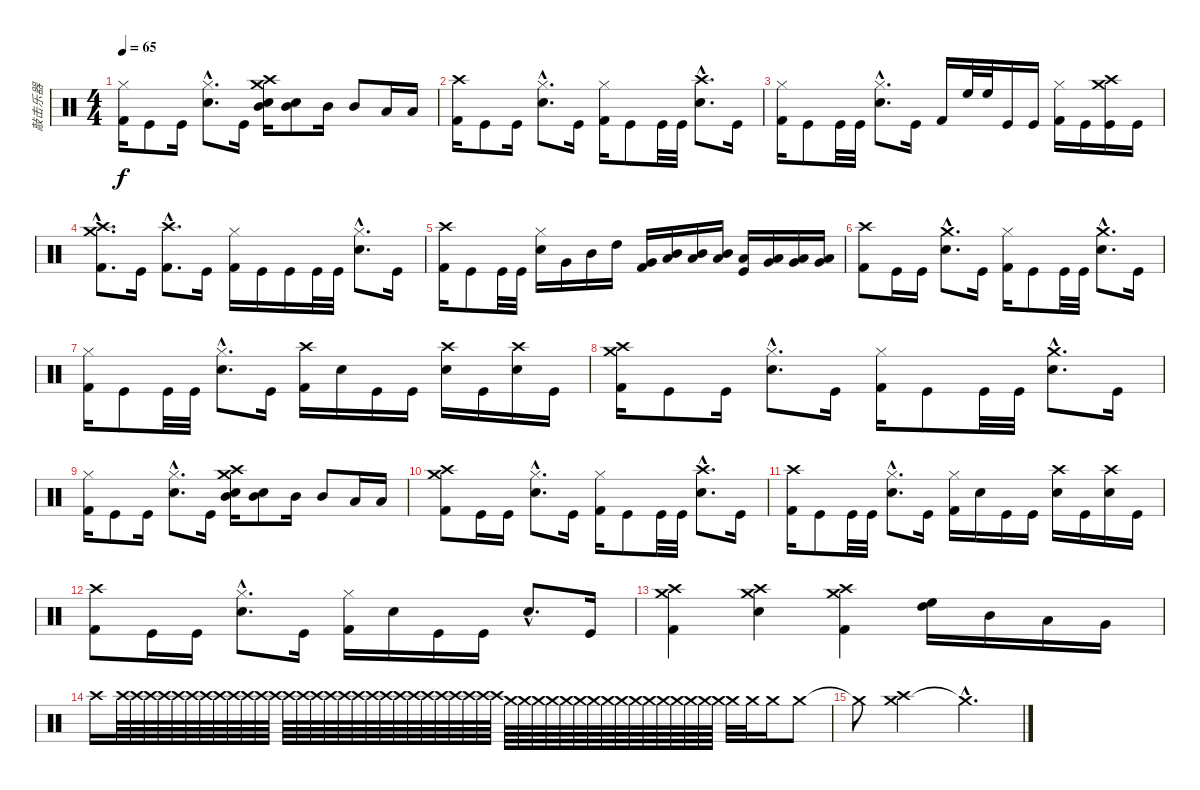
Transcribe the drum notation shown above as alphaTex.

\track ("敲击乐器" "敲击乐器") {instrument percussion}
\staff {score}
\articulation defaults
\ts (4 4)
\tempo 65
\clef neutral
\ks c
("Hi-Hat (closed)" "Kick (hit) 2").16{dy f} "Kick (hit)".8 "Kick (hit)".16 ("Hi-Hat (closed)"{hac} "Electric Snare (hit)"{hac}).8{d} "Kick (hit)".16 ("Crash high (hit)" "Electric Snare (hit)" "Mid Tom (hit)" "Crash medium (hit)").16 ("Electric Snare (hit)" "Mid Tom (hit)").8 "Mid Tom (hit)".16 "Mid Tom (hit)".8 "Low Tom (hit)".16 "Low Tom (hit)".16 |
("Crash high (hit)" "Kick (hit) 2").16 "Kick (hit)".8 "Kick (hit)".16 ("Hi-Hat (closed)"{hac} "Electric Snare (hit)"{hac}).8{d} "Kick (hit)".16 ("Hi-Hat (closed)" "Kick (hit) 2").16 "Kick (hit)".8 "Kick (hit)".32 "Kick (hit)".32 ("Crash high (hit)"{hac} "Electric Snare (hit)"{hac}).8{d} "Kick (hit)".16 |
("Hi-Hat (closed)" "Kick (hit) 2").16 "Kick (hit)".8 "Kick (hit)".32 "Kick (hit)".32 ("Hi-Hat (closed)"{hac} "Electric Snare (hit)"{hac}).8{d} "Kick (hit)".16 "Kick (hit) 2".16 "High Floor Tom (hit)".32 "High Floor Tom (hit)".32 "Kick (hit)".16 "Kick (hit)".16 ("Hi-Hat (closed)" "Kick (hit) 2").16 "Kick (hit)".16 ("Crash high (hit)" "Crash medium (hit)" "Kick (hit)").16 "Kick (hit)".16 |
("Crash high (hit)"{hac} "Crash medium (hit)"{hac} "Kick (hit) 2"{hac}).8{d} "Kick (hit)".16 ("Crash high (hit)"{hac} "Kick (hit) 2"{hac}).8{d} "Kick (hit)".16 ("Hi-Hat (closed)" "Kick (hit) 2").16 "Kick (hit)".16 "Kick (hit)".16 "Kick (hit)".32 "Kick (hit)".32 ("Hi-Hat (closed)"{hac} "Electric Snare (hit)"{hac}).8{d} "Kick (hit)".16 |
("Crash high (hit)" "Kick (hit) 2").16 "Kick (hit)".8 "Kick (hit)".32 "Kick (hit)".32 ("Hi-Hat (closed)" "Electric Snare (hit)").16 "Very Low Tom (hit)".16 "Mid Tom (hit)".16 "High Tom (hit)".16 ("Very Low Tom (hit)" "Kick (hit) 2").16{volume 11} ("Mid Tom (hit)" "Low Tom (hit)").16{volume 9} ("Mid Tom (hit)" "Low Tom (hit)").16{volume 10} ("Mid Tom (hit)" "Low Tom (hit)").16{volume 11} ("Low Tom (hit)" "Kick (hit)").16{volume 13} ("Low Tom (hit)" "Very Low Tom (hit)").16{volume 14} ("Low Tom (hit)" "Very Low Tom (hit)").16{volume 15} ("Low Tom (hit)" "Very Low Tom (hit)").16{volume 16} |
("Crash high (hit)" "Kick (hit) 2").8{volume 13} "Kick (hit)".16 "Kick (hit)".16 ("Crash medium (hit)"{hac} "Electric Snare (hit)"{hac}).8{d} "Kick (hit)".16 ("Hi-Hat (closed)" "Kick (hit) 2").16 "Kick (hit)".8 "Kick (hit)".32 "Kick (hit)".32 ("Crash medium (hit)"{hac} "Electric Snare (hit)"{hac}).8{d} "Kick (hit)".16 |
("Hi-Hat (closed)" "Kick (hit) 2").16 "Kick (hit)".8 "Kick (hit)".32 "Kick (hit)".32 ("Hi-Hat (closed)"{hac} "Electric Snare (hit)"{hac}).8{d} "Kick (hit)".16 ("Crash high (hit)" "Kick (hit) 2").16 "Electric Snare (hit)".16 "Kick (hit)".16 "Kick (hit)".16 ("Crash high (hit)" "Electric Snare (hit)").16 "Kick (hit)".16 ("Crash high (hit)" "Electric Snare (hit)").16 "Kick (hit)".16 |
("Crash medium (hit)" "Crash high (hit)" "Kick (hit) 2").16 "Kick (hit)".8 "Kick (hit)".16 ("Hi-Hat (closed)"{hac} "Electric Snare (hit)"{hac}).8{d} "Kick (hit)".16 ("Hi-Hat (closed)" "Kick (hit) 2").16 "Kick (hit)".8 "Kick (hit)".32 "Kick (hit)".32 ("Crash medium (hit)"{hac} "Electric Snare (hit)"{hac}).8{d} "Kick (hit)".16 |
("Hi-Hat (closed)" "Kick (hit) 2").16 "Kick (hit)".8 "Kick (hit)".16 ("Hi-Hat (closed)"{hac} "Electric Snare (hit)"{hac}).8{d} "Kick (hit)".16 ("Crash high (hit)" "Electric Snare (hit)" "Mid Tom (hit)" "Crash medium (hit)").16 ("Electric Snare (hit)" "Mid Tom (hit)").8 "Mid Tom (hit)".16 "Mid Tom (hit)".8 "Low Tom (hit)".16 "Low Tom (hit)".16 |
("Crash high (hit)" "Crash medium (hit)" "Kick (hit) 2").8 "Kick (hit)".16 "Kick (hit)".16 ("Hi-Hat (closed)"{hac} "Electric Snare (hit)"{hac}).8{d} "Kick (hit)".16 ("Hi-Hat (closed)" "Kick (hit) 2").16 "Kick (hit)".8 "Kick (hit)".32 "Kick (hit)".32 ("Crash high (hit)"{hac} "Electric Snare (hit)"{hac}).8{d} "Kick (hit)".16 |
("Crash high (hit)" "Kick (hit) 2").16 "Kick (hit)".8 "Kick (hit)".32 "Kick (hit)".32 ("Hi-Hat (closed)"{hac} "Electric Snare (hit)"{hac}).8{d} "Kick (hit)".16 ("Hi-Hat (closed)" "Kick (hit) 2").16 "Electric Snare (hit)".16 "Kick (hit)".16 "Kick (hit)".16 ("Crash high (hit)" "Electric Snare (hit)").16 "Kick (hit)".16 ("Crash high (hit)" "Electric Snare (hit)").16 "Kick (hit)".16 |
("Crash high (hit)" "Kick (hit) 2").8 "Kick (hit)".16 "Kick (hit)".16 ("Hi-Hat (closed)"{hac} "Electric Snare (hit)"{hac}).8{d} "Kick (hit)".16 ("Hi-Hat (closed)" "Kick (hit) 2").16 "Electric Snare (hit)".16 "Kick (hit)".16 "Kick (hit)".16 "Electric Snare (hit)"{hac}.8{d} "Kick (hit)".16 |
("Crash high (hit)" "Crash medium (hit)" "Kick (hit) 2").4 ("Crash high (hit)" "Crash medium (hit)" "Electric Snare (hit)").4 ("Crash high (hit)" "Crash medium (hit)" "Kick (hit) 2").4 ("High Tom (hit)" "High Floor Tom (hit)").16 "Mid Tom (hit)".16 "Low Tom (hit)".16 "Very Low Tom (hit)".16 |
"Crash high (hit)".16 "Crash high (hit)".64{volume 5} "Crash high (hit)".64{volume 6} "Crash high (hit)".64{volume 7} "Crash high (hit)".64{volume 8} "Crash high (hit)".64{volume 9} "Crash high (hit)".64{volume 10} "Crash high (hit)".64{volume 11} "Crash high (hit)".64{volume 12} "Crash high (hit)".64{volume 13} "Crash high (hit)".64{volume 14} "Crash high (hit)".64{volume 15} "Crash high (hit)".64{volume 16} "Crash high (hit)".64{volume 16} "Crash high (hit)".64{volume 15} "Crash high (hit)".64{volume 14} "Crash high (hit)".64{volume 13} "Crash high (hit)".64{volume 12} "Crash high (hit)".64{volume 11} "Crash high (hit)".64{volume 10} "Crash high (hit)".64{volume 9} "Crash high (hit)".64{volume 8} "Crash high (hit)".64{volume 7} "Crash high (hit)".64{volume 6} "Crash high (hit)".64{volume 5} "Crash high (hit)".64{volume 5} "Crash high (hit)".64{volume 5} "Crash high (hit)".64{volume 5} "Crash high (hit)".64{volume 4} "Crash medium (hit)".64{volume 5} "Crash medium (hit)".64{volume 6} "Crash medium (hit)".64{volume 7} "Crash medium (hit)".64{volume 8} "Crash medium (hit)".64{volume 9} "Crash medium (hit)".64{volume 10} "Crash medium (hit)".64{volume 11} "Crash medium (hit)".64{volume 12} "Crash medium (hit)".64{volume 12} "Crash medium (hit)".64{volume 13} "Crash medium (hit)".64{volume 13} "Crash medium (hit)".64{volume 14} "Crash medium (hit)".64{volume 14} "Crash medium (hit)".64{volume 15} "Crash medium (hit)".64{volume 15} "Crash medium (hit)".64{volume 16} "Crash medium (hit)".32 "Crash medium (hit)".32 "Crash medium (hit)".16 "Crash medium (hit)".8 |
"Crash medium (hit)"{t}.8 ("Crash medium (hit)" "Crash high (hit)").2{volume 16} "Crash medium (hit)"{hac t}.4{d}
